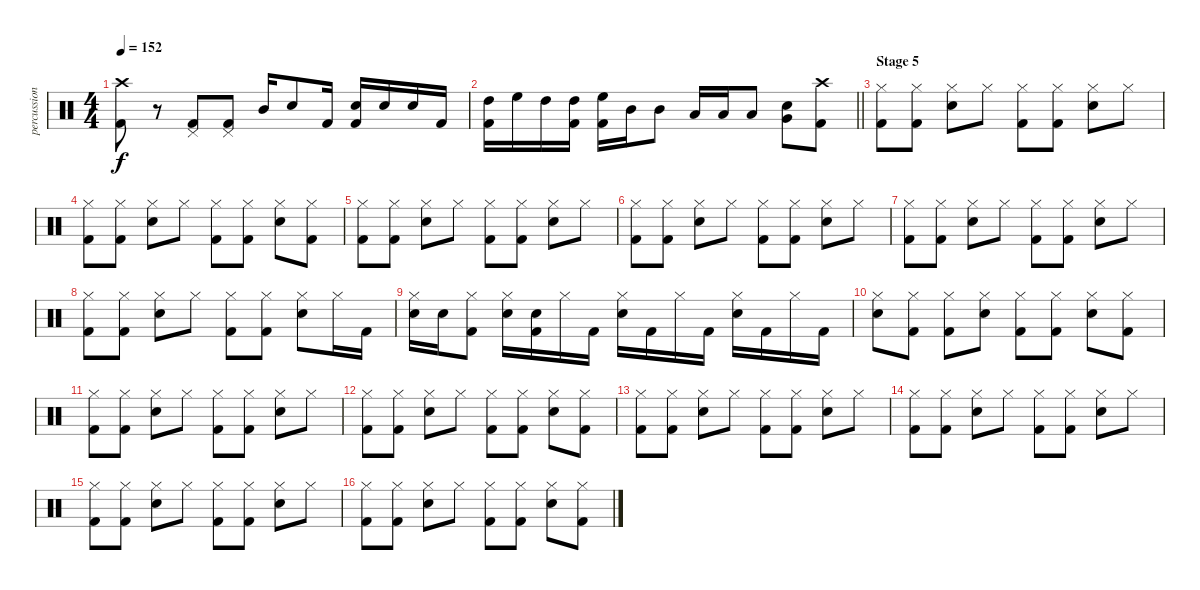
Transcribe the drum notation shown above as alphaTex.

\track ("percussion" "percussion") {instrument percussion}
\staff {score}
\articulation defaults
\ts (4 4)
\tempo 152
\clef neutral
\ks c
("Crash high (hit)" "Kick (hit) 2").8{dy f} r.8 ("Pedal Hi-Hat (hit)" "Kick (hit) 2").8 ("Pedal Hi-Hat (hit)" "Kick (hit) 2").8 "Mid Tom (hit)".16 "Electric Snare (hit)".8 "Kick (hit) 2".16 ("Electric Snare (hit)" "Kick (hit) 2").16 "Electric Snare (hit)".16 "Electric Snare (hit)".16 "Kick (hit) 2".16 |
\barLineRight lightlight
("High Tom (hit)" "Kick (hit) 2").16 "High Floor Tom (hit)".16 "High Tom (hit)".16 ("High Tom (hit)" "Kick (hit) 2").16 ("High Floor Tom (hit)" "Kick (hit) 2").16 "Mid Tom (hit)".16 "Mid Tom (hit)".8 "Low Tom (hit)".16 "Low Tom (hit)".16 "Low Tom (hit)".8 ("Very Low Tom (hit)" "Electric Snare (hit)").8 ("Crash high (hit)" "Kick (hit) 2").8 |
\section ("" "Stage 5")
("Hi-Hat (closed)" "Kick (hit) 2").8 ("Hi-Hat (closed)" "Kick (hit) 2").8 ("Electric Snare (hit)" "Hi-Hat (closed)").8 "Hi-Hat (closed)".8 ("Hi-Hat (closed)" "Kick (hit) 2").8 ("Hi-Hat (closed)" "Kick (hit) 2").8 ("Electric Snare (hit)" "Hi-Hat (closed)").8 "Hi-Hat (closed)".8 |
("Hi-Hat (closed)" "Kick (hit) 2").8 ("Hi-Hat (closed)" "Kick (hit) 2").8 ("Electric Snare (hit)" "Hi-Hat (closed)").8 "Hi-Hat (closed)".8 ("Hi-Hat (closed)" "Kick (hit) 2").8 ("Hi-Hat (closed)" "Kick (hit) 2").8 ("Electric Snare (hit)" "Hi-Hat (closed)").8 ("Hi-Hat (closed)" "Kick (hit) 2").8 |
("Hi-Hat (closed)" "Kick (hit) 2").8 ("Hi-Hat (closed)" "Kick (hit) 2").8 ("Electric Snare (hit)" "Hi-Hat (closed)").8 "Hi-Hat (closed)".8 ("Hi-Hat (closed)" "Kick (hit) 2").8 ("Hi-Hat (closed)" "Kick (hit) 2").8 ("Electric Snare (hit)" "Hi-Hat (closed)").8 "Hi-Hat (closed)".8 |
("Hi-Hat (closed)" "Kick (hit) 2").8 ("Hi-Hat (closed)" "Kick (hit) 2").8 ("Electric Snare (hit)" "Hi-Hat (closed)").8 "Hi-Hat (closed)".8 ("Hi-Hat (closed)" "Kick (hit) 2").8 ("Hi-Hat (closed)" "Kick (hit) 2").8 ("Electric Snare (hit)" "Hi-Hat (closed)").8 "Hi-Hat (closed)".8 |
("Hi-Hat (closed)" "Kick (hit) 2").8 ("Hi-Hat (closed)" "Kick (hit) 2").8 ("Electric Snare (hit)" "Hi-Hat (closed)").8 "Hi-Hat (closed)".8 ("Hi-Hat (closed)" "Kick (hit) 2").8 ("Hi-Hat (closed)" "Kick (hit) 2").8 ("Electric Snare (hit)" "Hi-Hat (closed)").8 "Hi-Hat (closed)".8 |
("Hi-Hat (closed)" "Kick (hit) 2").8 ("Hi-Hat (closed)" "Kick (hit) 2").8 ("Electric Snare (hit)" "Hi-Hat (closed)").8 "Hi-Hat (closed)".8 ("Hi-Hat (closed)" "Kick (hit) 2").8 ("Hi-Hat (closed)" "Kick (hit) 2").8 ("Electric Snare (hit)" "Hi-Hat (closed)").8 "Hi-Hat (closed)".16 "Kick (hit) 2".16 |
("Electric Snare (hit)" "Hi-Hat (closed)").16 "Electric Snare (hit)".16 ("Hi-Hat (closed)" "Kick (hit) 2").8 ("Electric Snare (hit)" "Hi-Hat (closed)").16 ("Electric Snare (hit)" "Kick (hit) 2").16 "Hi-Hat (closed)".16 "Kick (hit) 2".16 ("Electric Snare (hit)" "Hi-Hat (closed)").16 "Kick (hit) 2".16 "Hi-Hat (closed)".16 "Kick (hit) 2".16 ("Electric Snare (hit)" "Hi-Hat (closed)").16 "Kick (hit) 2".16 "Hi-Hat (closed)".16 "Kick (hit) 2".16 |
("Electric Snare (hit)" "Hi-Hat (closed)").8 ("Hi-Hat (closed)" "Kick (hit) 2").8 ("Hi-Hat (closed)" "Kick (hit) 2").8 ("Electric Snare (hit)" "Hi-Hat (closed)").8 ("Hi-Hat (closed)" "Kick (hit) 2").8 ("Hi-Hat (closed)" "Kick (hit) 2").8 ("Electric Snare (hit)" "Hi-Hat (closed)").8 ("Hi-Hat (closed)" "Kick (hit) 2").8 |
("Hi-Hat (closed)" "Kick (hit) 2").8 ("Hi-Hat (closed)" "Kick (hit) 2").8 ("Electric Snare (hit)" "Hi-Hat (closed)").8 "Hi-Hat (closed)".8 ("Hi-Hat (closed)" "Kick (hit) 2").8 ("Hi-Hat (closed)" "Kick (hit) 2").8 ("Electric Snare (hit)" "Hi-Hat (closed)").8 "Hi-Hat (closed)".8 |
("Hi-Hat (closed)" "Kick (hit) 2").8 ("Hi-Hat (closed)" "Kick (hit) 2").8 ("Electric Snare (hit)" "Hi-Hat (closed)").8 "Hi-Hat (closed)".8 ("Hi-Hat (closed)" "Kick (hit) 2").8 ("Hi-Hat (closed)" "Kick (hit) 2").8 ("Electric Snare (hit)" "Hi-Hat (closed)").8 ("Hi-Hat (closed)" "Kick (hit) 2").8 |
("Hi-Hat (closed)" "Kick (hit) 2").8 ("Hi-Hat (closed)" "Kick (hit) 2").8 ("Electric Snare (hit)" "Hi-Hat (closed)").8 "Hi-Hat (closed)".8 ("Hi-Hat (closed)" "Kick (hit) 2").8 ("Hi-Hat (closed)" "Kick (hit) 2").8 ("Electric Snare (hit)" "Hi-Hat (closed)").8 "Hi-Hat (closed)".8 |
("Hi-Hat (closed)" "Kick (hit) 2").8 ("Hi-Hat (closed)" "Kick (hit) 2").8 ("Electric Snare (hit)" "Hi-Hat (closed)").8 "Hi-Hat (closed)".8 ("Hi-Hat (closed)" "Kick (hit) 2").8 ("Hi-Hat (closed)" "Kick (hit) 2").8 ("Electric Snare (hit)" "Hi-Hat (closed)").8 "Hi-Hat (closed)".8 |
("Hi-Hat (closed)" "Kick (hit) 2").8 ("Hi-Hat (closed)" "Kick (hit) 2").8 ("Electric Snare (hit)" "Hi-Hat (closed)").8 "Hi-Hat (closed)".8 ("Hi-Hat (closed)" "Kick (hit) 2").8 ("Hi-Hat (closed)" "Kick (hit) 2").8 ("Electric Snare (hit)" "Hi-Hat (closed)").8 "Hi-Hat (closed)".8 |
("Hi-Hat (closed)" "Kick (hit) 2").8 ("Hi-Hat (closed)" "Kick (hit) 2").8 ("Electric Snare (hit)" "Hi-Hat (closed)").8 "Hi-Hat (closed)".8 ("Hi-Hat (closed)" "Kick (hit) 2").8 ("Hi-Hat (closed)" "Kick (hit) 2").8 ("Electric Snare (hit)" "Hi-Hat (closed)").8 ("Hi-Hat (closed)" "Kick (hit) 2").8
